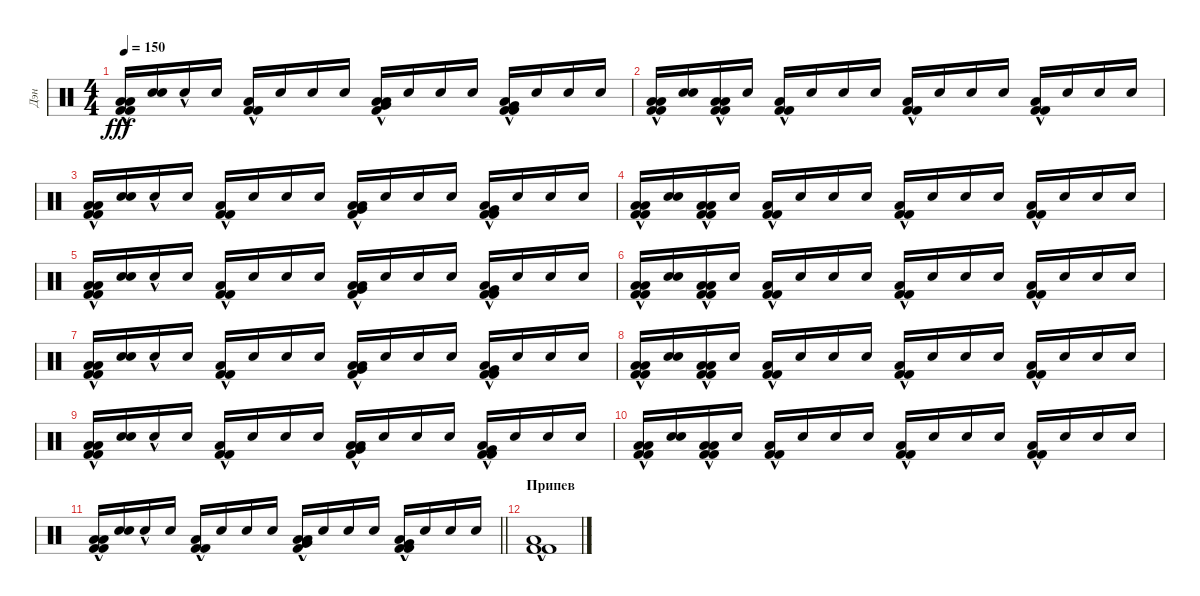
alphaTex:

\track ("Дэн" "Дэн") {instrument percussion}
\staff {score}
\articulation defaults
\ts (4 4)
\tempo 150
\clef neutral
\ks c
("Low Floor Tom (hit)"{hac} "Low Floor Tom (hit)" "Kick (hit) 2"{hac} "Kick (hit) 2"{hac}).16{dy fff} ("Snare (hit)" "Snare (hit)").16 "Snare (hit)"{hac}.16 "Snare (hit)".16 ("Low Floor Tom (hit)" "Kick (hit) 2"{hac} "Kick (hit) 2"{hac}).16 "Snare (hit)".16 "Snare (hit)".16 "Snare (hit)".16 ("Low Floor Tom (hit)"{hac} "Very Low Tom (hit)" "Kick (hit) 2"{hac} "Low Floor Tom (hit)").16 "Snare (hit)".16 "Snare (hit)".16 "Snare (hit)".16 ("Very Low Tom (hit)"{hac} "Low Floor Tom (hit)"{hac} "Kick (hit) 2"{hac} "Kick (hit) 2"{hac}).16 "Snare (hit)".16 "Snare (hit)".16 "Snare (hit)".16 |
("Low Floor Tom (hit)"{hac} "Low Floor Tom (hit)" "Kick (hit) 2"{hac} "Kick (hit) 2"{hac}).16 ("Snare (hit)" "Snare (hit)").16 ("Low Floor Tom (hit)"{hac} "Low Floor Tom (hit)" "Kick (hit) 2"{hac} "Kick (hit) 2"{hac}).16 "Snare (hit)".16 ("Low Floor Tom (hit)" "Kick (hit) 2"{hac} "Kick (hit) 2"{hac}).16 "Snare (hit)".16 "Snare (hit)".16 "Snare (hit)".16 ("Kick (hit) 2"{hac} "Kick (hit) 2"{hac} "Low Floor Tom (hit)").16 "Snare (hit)".16 "Snare (hit)".16 "Snare (hit)".16 ("Low Floor Tom (hit)" "Kick (hit) 2"{hac} "Kick (hit) 2"{hac}).16 "Snare (hit)".16 "Snare (hit)".16 "Snare (hit)".16 |
("Low Floor Tom (hit)"{hac} "Low Floor Tom (hit)" "Kick (hit) 2"{hac} "Kick (hit) 2"{hac}).16 ("Snare (hit)" "Snare (hit)").16 "Snare (hit)"{hac}.16 "Snare (hit)".16 ("Low Floor Tom (hit)" "Kick (hit) 2"{hac} "Kick (hit) 2"{hac}).16 "Snare (hit)".16 "Snare (hit)".16 "Snare (hit)".16 ("Low Floor Tom (hit)"{hac} "Very Low Tom (hit)" "Kick (hit) 2"{hac} "Low Floor Tom (hit)").16 "Snare (hit)".16 "Snare (hit)".16 "Snare (hit)".16 ("Very Low Tom (hit)"{hac} "Low Floor Tom (hit)"{hac} "Kick (hit) 2"{hac} "Kick (hit) 2"{hac}).16 "Snare (hit)".16 "Snare (hit)".16 "Snare (hit)".16 |
("Low Floor Tom (hit)"{hac} "Low Floor Tom (hit)" "Kick (hit) 2"{hac} "Kick (hit) 2"{hac}).16 ("Snare (hit)" "Snare (hit)").16 ("Low Floor Tom (hit)"{hac} "Low Floor Tom (hit)" "Kick (hit) 2"{hac} "Kick (hit) 2"{hac}).16 "Snare (hit)".16 ("Low Floor Tom (hit)" "Kick (hit) 2"{hac} "Kick (hit) 2"{hac}).16 "Snare (hit)".16 "Snare (hit)".16 "Snare (hit)".16 ("Kick (hit) 2"{hac} "Kick (hit) 2"{hac} "Low Floor Tom (hit)").16 "Snare (hit)".16 "Snare (hit)".16 "Snare (hit)".16 ("Low Floor Tom (hit)" "Kick (hit) 2"{hac} "Kick (hit) 2"{hac}).16 "Snare (hit)".16 "Snare (hit)".16 "Snare (hit)".16 |
("Low Floor Tom (hit)"{hac} "Low Floor Tom (hit)" "Kick (hit) 2"{hac} "Kick (hit) 2"{hac}).16 ("Snare (hit)" "Snare (hit)").16 "Snare (hit)"{hac}.16 "Snare (hit)".16 ("Low Floor Tom (hit)" "Kick (hit) 2"{hac} "Kick (hit) 2"{hac}).16 "Snare (hit)".16 "Snare (hit)".16 "Snare (hit)".16 ("Low Floor Tom (hit)"{hac} "Very Low Tom (hit)" "Kick (hit) 2"{hac} "Low Floor Tom (hit)").16 "Snare (hit)".16 "Snare (hit)".16 "Snare (hit)".16 ("Very Low Tom (hit)"{hac} "Low Floor Tom (hit)"{hac} "Kick (hit) 2"{hac} "Kick (hit) 2"{hac}).16 "Snare (hit)".16 "Snare (hit)".16 "Snare (hit)".16 |
("Low Floor Tom (hit)"{hac} "Low Floor Tom (hit)" "Kick (hit) 2"{hac} "Kick (hit) 2"{hac}).16 ("Snare (hit)" "Snare (hit)").16 ("Low Floor Tom (hit)"{hac} "Low Floor Tom (hit)" "Kick (hit) 2"{hac} "Kick (hit) 2"{hac}).16 "Snare (hit)".16 ("Low Floor Tom (hit)" "Kick (hit) 2"{hac} "Kick (hit) 2"{hac}).16 "Snare (hit)".16 "Snare (hit)".16 "Snare (hit)".16 ("Kick (hit) 2"{hac} "Kick (hit) 2"{hac} "Low Floor Tom (hit)").16 "Snare (hit)".16 "Snare (hit)".16 "Snare (hit)".16 ("Low Floor Tom (hit)" "Kick (hit) 2"{hac} "Kick (hit) 2"{hac}).16 "Snare (hit)".16 "Snare (hit)".16 "Snare (hit)".16 |
("Low Floor Tom (hit)"{hac} "Low Floor Tom (hit)" "Kick (hit) 2"{hac} "Kick (hit) 2"{hac}).16 ("Snare (hit)" "Snare (hit)").16 "Snare (hit)"{hac}.16 "Snare (hit)".16 ("Low Floor Tom (hit)" "Kick (hit) 2"{hac} "Kick (hit) 2"{hac}).16 "Snare (hit)".16 "Snare (hit)".16 "Snare (hit)".16 ("Low Floor Tom (hit)"{hac} "Very Low Tom (hit)" "Kick (hit) 2"{hac} "Low Floor Tom (hit)").16 "Snare (hit)".16 "Snare (hit)".16 "Snare (hit)".16 ("Very Low Tom (hit)"{hac} "Low Floor Tom (hit)"{hac} "Kick (hit) 2"{hac} "Kick (hit) 2"{hac}).16 "Snare (hit)".16 "Snare (hit)".16 "Snare (hit)".16 |
("Low Floor Tom (hit)"{hac} "Low Floor Tom (hit)" "Kick (hit) 2"{hac} "Kick (hit) 2"{hac}).16 ("Snare (hit)" "Snare (hit)").16 ("Low Floor Tom (hit)"{hac} "Low Floor Tom (hit)" "Kick (hit) 2"{hac} "Kick (hit) 2"{hac}).16 "Snare (hit)".16 ("Low Floor Tom (hit)" "Kick (hit) 2"{hac} "Kick (hit) 2"{hac}).16 "Snare (hit)".16 "Snare (hit)".16 "Snare (hit)".16 ("Kick (hit) 2"{hac} "Kick (hit) 2"{hac} "Low Floor Tom (hit)").16 "Snare (hit)".16 "Snare (hit)".16 "Snare (hit)".16 ("Low Floor Tom (hit)" "Kick (hit) 2"{hac} "Kick (hit) 2"{hac}).16 "Snare (hit)".16 "Snare (hit)".16 "Snare (hit)".16 |
("Low Floor Tom (hit)"{hac} "Low Floor Tom (hit)" "Kick (hit) 2"{hac} "Kick (hit) 2"{hac}).16 ("Snare (hit)" "Snare (hit)").16 "Snare (hit)"{hac}.16 "Snare (hit)".16 ("Low Floor Tom (hit)" "Kick (hit) 2"{hac} "Kick (hit) 2"{hac}).16 "Snare (hit)".16 "Snare (hit)".16 "Snare (hit)".16 ("Low Floor Tom (hit)"{hac} "Very Low Tom (hit)" "Kick (hit) 2"{hac} "Low Floor Tom (hit)").16 "Snare (hit)".16 "Snare (hit)".16 "Snare (hit)".16 ("Very Low Tom (hit)"{hac} "Low Floor Tom (hit)"{hac} "Kick (hit) 2"{hac} "Kick (hit) 2"{hac}).16 "Snare (hit)".16 "Snare (hit)".16 "Snare (hit)".16 |
("Low Floor Tom (hit)"{hac} "Low Floor Tom (hit)" "Kick (hit) 2"{hac} "Kick (hit) 2"{hac}).16 ("Snare (hit)" "Snare (hit)").16 ("Low Floor Tom (hit)"{hac} "Low Floor Tom (hit)" "Kick (hit) 2"{hac} "Kick (hit) 2"{hac}).16 "Snare (hit)".16 ("Low Floor Tom (hit)" "Kick (hit) 2"{hac} "Kick (hit) 2"{hac}).16 "Snare (hit)".16 "Snare (hit)".16 "Snare (hit)".16 ("Kick (hit) 2"{hac} "Kick (hit) 2"{hac} "Low Floor Tom (hit)").16 "Snare (hit)".16 "Snare (hit)".16 "Snare (hit)".16 ("Low Floor Tom (hit)" "Kick (hit) 2"{hac} "Kick (hit) 2"{hac}).16 "Snare (hit)".16 "Snare (hit)".16 "Snare (hit)".16 |
\barLineRight lightlight
("Low Floor Tom (hit)"{hac} "Low Floor Tom (hit)" "Kick (hit) 2"{hac} "Kick (hit) 2"{hac}).16 ("Snare (hit)" "Snare (hit)").16 "Snare (hit)"{hac}.16 "Snare (hit)".16 ("Low Floor Tom (hit)" "Kick (hit) 2"{hac} "Kick (hit) 2"{hac}).16 "Snare (hit)".16 "Snare (hit)".16 "Snare (hit)".16 ("Low Floor Tom (hit)"{hac} "Very Low Tom (hit)" "Kick (hit) 2"{hac} "Low Floor Tom (hit)").16 "Snare (hit)".16 "Snare (hit)".16 "Snare (hit)".16 ("Very Low Tom (hit)"{hac} "Low Floor Tom (hit)"{hac} "Kick (hit) 2"{hac} "Kick (hit) 2"{hac}).16 "Snare (hit)".16 "Snare (hit)".16 "Snare (hit)".16 |
\section ("" "Припев")
("Low Floor Tom (hit)" "Kick (hit) 2"{hac} "Kick (hit) 2"{hac}).1
